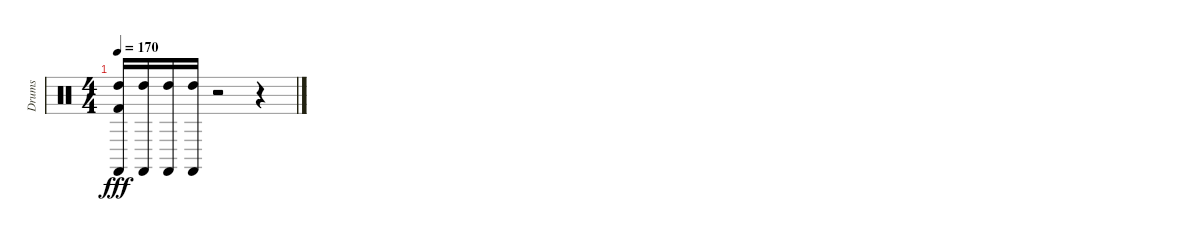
\track ("Drums" "Drums") {instrument percussion}
\staff {score}
\articulation defaults
\ts (4 4)
\tempo 170
\clef neutral
\ks c
("Castanets (hit)" "Kick (hit) 2" "High Tom (hit)").16{dy fff} ("Castanets (hit)" "High Tom (hit)").16 ("Castanets (hit)" "High Tom (hit)").16 ("Castanets (hit)" "High Tom (hit)").16 r.2 r.4
